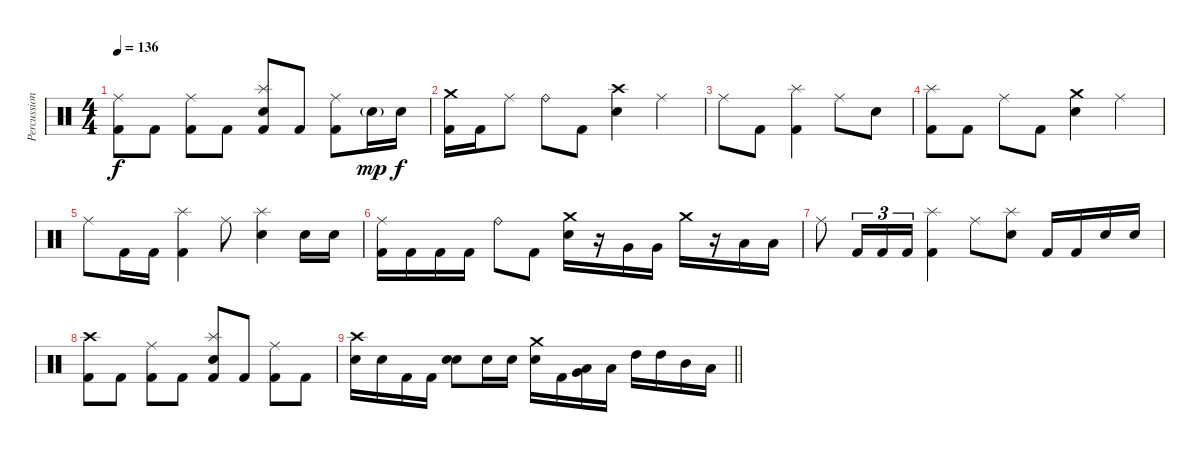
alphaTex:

\track ("Percussion" "Percussion") {instrument percussion}
\staff {score}
\articulation defaults
\ts (4 4)
\tempo 136
\clef neutral
\ks c
("Ride (middle)" "Kick (hit) 2").8{dy f} "Kick (hit) 2".8 ("Ride (middle)" "Kick (hit) 2").8 "Kick (hit) 2".8 ("Splash (hit)" "Electric Snare (hit)" "Kick (hit) 2").8 "Kick (hit) 2".8 ("Ride (middle)" "Kick (hit) 2").8 "Electric Snare (hit)"{g}.16{dy mp} "Electric Snare (hit)".16{dy f} |
("Crash medium (hit)" "Kick (hit) 2").16 "Kick (hit) 2".16 "Ride (middle)".8 "Ride (bell)".8 "Kick (hit) 2".8 ("Crash high (hit)" "Electric Snare (hit)").4 "Ride (middle)".4 |
"Ride (middle)".8 "Kick (hit) 2".8 ("Splash (hit)" "Kick (hit) 2").4 "Ride (middle)".8 "Electric Snare (hit)".8 |
("Splash (hit)" "Kick (hit) 2").8 "Kick (hit) 2".8 "Ride (middle)".8 "Kick (hit) 2".8 ("Crash medium (hit)" "Electric Snare (hit)").4 "Ride (middle)".4 |
"Ride (middle)".8 "Kick (hit) 2".16 "Kick (hit) 2".16 ("Splash (hit)" "Kick (hit) 2").4 "Ride (middle)".8 ("Splash (hit)" "Electric Snare (hit)").4 "Electric Snare (hit)".16 "Electric Snare (hit)".16 |
("Ride (middle)" "Kick (hit) 2").16 "Kick (hit) 2".16 "Kick (hit) 2".16 "Kick (hit) 2".16 "Ride (bell)".8 "Kick (hit) 2".8 ("Crash medium (hit)" "Electric Snare (hit)").16 r.16 "Very Low Tom (hit)".16 "Very Low Tom (hit)".16 "Crash medium (hit)".16 r.16 "Low Floor Tom (hit)".16 "Low Floor Tom (hit)".16 |
"Ride (middle)".8 "Kick (hit) 2".16{tu (3 2)} "Kick (hit) 2".16{tu (3 2)} "Kick (hit) 2".16{tu (3 2)} ("Splash (hit)" "Kick (hit) 2").4 "Ride (middle)".8 ("Splash (hit)" "Electric Snare (hit)").8 "Kick (hit) 2".16 "Kick (hit) 2".16 "Electric Snare (hit)".16 "Electric Snare (hit)".16 |
("Crash high (hit)" "Kick (hit) 2").8 "Kick (hit) 2".8 ("Ride (middle)" "Kick (hit) 2").8 "Kick (hit) 2".8 ("Splash (hit)" "Electric Snare (hit)" "Kick (hit) 2").8 "Kick (hit) 2".8 ("Ride (middle)" "Kick (hit) 2").8 "Kick (hit) 2".8 |
\barLineRight lightlight
("Crash high (hit)" "Electric Snare (hit)").16 "Electric Snare (hit)".16 "Kick (hit) 2".16 "Kick (hit) 2".16 ("Electric Snare (hit)" "Electric Snare (hit)").8{bd 240} "Electric Snare (hit)".16 "Electric Snare (hit)".16 ("Crash medium (hit)" "Electric Snare (hit)").16 "Kick (hit) 2".16 ("Very Low Tom (hit)" "Low Tom (hit)").16{bd 240} "Low Floor Tom (hit)".16 "High Tom (hit)".16 "High Tom (hit)".16 "Mid Tom (hit)".16 "Low Tom (hit)".16
